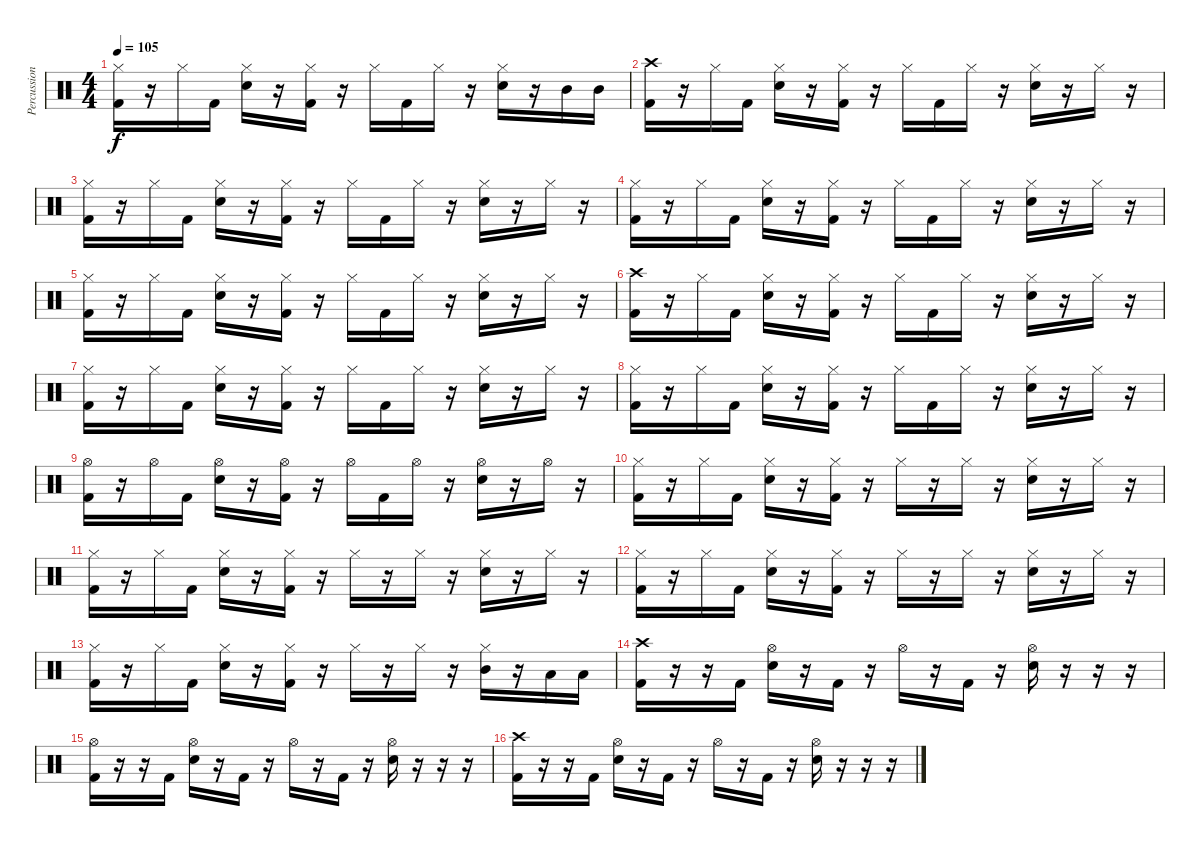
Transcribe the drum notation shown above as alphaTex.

\track ("Percussion" "Percussion") {instrument percussion}
\staff {score}
\articulation defaults
\ts (4 4)
\tempo 105
\clef neutral
\ks c
("Hi-Hat (closed)" "Kick (hit) 2").16{dy f} r.16 "Hi-Hat (closed)".16 "Kick (hit) 2".16 ("Hi-Hat (closed)" "Snare (hit) 2").16 r.16 ("Hi-Hat (closed)" "Kick (hit) 2").16 r.16 "Hi-Hat (closed)".16 "Kick (hit) 2".16 "Hi-Hat (closed)".16 r.16 ("Hi-Hat (closed)" "Snare (hit) 2").16 r.16 "Mid Tom (hit)".16 "Mid Tom (hit)".16 |
("Crash high (hit)" "Kick (hit) 2").16 r.16 "Hi-Hat (closed)".16 "Kick (hit) 2".16 ("Hi-Hat (closed)" "Snare (hit) 2").16 r.16 ("Hi-Hat (closed)" "Kick (hit) 2").16 r.16 "Hi-Hat (closed)".16 "Kick (hit) 2".16 "Hi-Hat (closed)".16 r.16 ("Hi-Hat (closed)" "Snare (hit) 2").16 r.16 "Hi-Hat (closed)".16 r.16 |
("Hi-Hat (closed)" "Kick (hit) 2").16 r.16 "Hi-Hat (closed)".16 "Kick (hit) 2".16 ("Hi-Hat (closed)" "Snare (hit) 2").16 r.16 ("Hi-Hat (closed)" "Kick (hit) 2").16 r.16 "Hi-Hat (closed)".16 "Kick (hit) 2".16 "Hi-Hat (closed)".16 r.16 ("Hi-Hat (closed)" "Snare (hit) 2").16 r.16 "Hi-Hat (closed)".16 r.16 |
("Hi-Hat (closed)" "Kick (hit) 2").16 r.16 "Hi-Hat (closed)".16 "Kick (hit) 2".16 ("Hi-Hat (closed)" "Snare (hit) 2").16 r.16 ("Hi-Hat (closed)" "Kick (hit) 2").16 r.16 "Hi-Hat (closed)".16 "Kick (hit) 2".16 "Hi-Hat (closed)".16 r.16 ("Hi-Hat (closed)" "Snare (hit) 2").16 r.16 "Hi-Hat (closed)".16 r.16 |
("Hi-Hat (closed)" "Kick (hit) 2").16 r.16 "Hi-Hat (closed)".16 "Kick (hit) 2".16 ("Hi-Hat (closed)" "Snare (hit) 2").16 r.16 ("Hi-Hat (closed)" "Kick (hit) 2").16 r.16 "Hi-Hat (closed)".16 "Kick (hit) 2".16 "Hi-Hat (closed)".16 r.16 ("Hi-Hat (closed)" "Snare (hit) 2").16 r.16 "Hi-Hat (closed)".16 r.16 |
("Crash high (hit)" "Kick (hit) 2").16 r.16 "Hi-Hat (closed)".16 "Kick (hit) 2".16 ("Hi-Hat (closed)" "Snare (hit) 2").16 r.16 ("Hi-Hat (closed)" "Kick (hit) 2").16 r.16 "Hi-Hat (closed)".16 "Kick (hit) 2".16 "Hi-Hat (closed)".16 r.16 ("Hi-Hat (closed)" "Snare (hit) 2").16 r.16 "Hi-Hat (closed)".16 r.16 |
("Hi-Hat (closed)" "Kick (hit) 2").16 r.16 "Hi-Hat (closed)".16 "Kick (hit) 2".16 ("Hi-Hat (closed)" "Snare (hit) 2").16 r.16 ("Hi-Hat (closed)" "Kick (hit) 2").16 r.16 "Hi-Hat (closed)".16 "Kick (hit) 2".16 "Hi-Hat (closed)".16 r.16 ("Hi-Hat (closed)" "Snare (hit) 2").16 r.16 "Hi-Hat (closed)".16 r.16 |
("Hi-Hat (closed)" "Kick (hit) 2").16 r.16 "Hi-Hat (closed)".16 "Kick (hit) 2".16 ("Hi-Hat (closed)" "Snare (hit) 2").16 r.16 ("Hi-Hat (closed)" "Kick (hit) 2").16 r.16 "Hi-Hat (closed)".16 "Kick (hit) 2".16 "Hi-Hat (closed)".16 r.16 ("Hi-Hat (closed)" "Snare (hit) 2").16 r.16 "Hi-Hat (closed)".16 r.16 |
("Hi-Hat (open)" "Kick (hit) 2").16 r.16 "Hi-Hat (open)".16 "Kick (hit) 2".16 ("Hi-Hat (open)" "Snare (hit) 2").16 r.16 ("Hi-Hat (open)" "Kick (hit) 2").16 r.16 "Hi-Hat (open)".16 "Kick (hit) 2".16 "Hi-Hat (open)".16 r.16 ("Hi-Hat (open)" "Snare (hit) 2").16 r.16 "Hi-Hat (open)".16 r.16 |
("Hi-Hat (closed)" "Kick (hit) 2").16 r.16 "Hi-Hat (closed)".16 "Kick (hit) 2".16 ("Hi-Hat (closed)" "Snare (hit) 2").16 r.16 ("Hi-Hat (closed)" "Kick (hit) 2").16 r.16 "Hi-Hat (closed)".16 r.16 "Hi-Hat (closed)".16 r.16 ("Hi-Hat (closed)" "Snare (hit) 2").16 r.16 "Hi-Hat (closed)".16 r.16 |
("Hi-Hat (closed)" "Kick (hit) 2").16 r.16 "Hi-Hat (closed)".16 "Kick (hit) 2".16 ("Hi-Hat (closed)" "Snare (hit) 2").16 r.16 ("Hi-Hat (closed)" "Kick (hit) 2").16 r.16 "Hi-Hat (closed)".16 r.16 "Hi-Hat (closed)".16 r.16 ("Hi-Hat (closed)" "Snare (hit) 2").16 r.16 "Hi-Hat (closed)".16 r.16 |
("Hi-Hat (closed)" "Kick (hit) 2").16 r.16 "Hi-Hat (closed)".16 "Kick (hit) 2".16 ("Hi-Hat (closed)" "Snare (hit) 2").16 r.16 ("Hi-Hat (closed)" "Kick (hit) 2").16 r.16 "Hi-Hat (closed)".16 r.16 "Hi-Hat (closed)".16 r.16 ("Hi-Hat (closed)" "Snare (hit) 2").16 r.16 "Hi-Hat (closed)".16 r.16 |
("Hi-Hat (closed)" "Kick (hit) 2").16 r.16 "Hi-Hat (closed)".16 "Kick (hit) 2".16 ("Hi-Hat (closed)" "Snare (hit) 2").16 r.16 ("Hi-Hat (closed)" "Kick (hit) 2").16 r.16 "Hi-Hat (closed)".16 r.16 "Hi-Hat (closed)".16 r.16 ("Hi-Hat (closed)" "Mid Tom (hit)").16 r.16 "Low Floor Tom (hit)".16 "Low Floor Tom (hit)".16 |
("Crash high (hit)" "Kick (hit) 2").16 r.16 r.16 "Kick (hit) 2".16 ("Hi-Hat (open)" "Snare (hit) 2").16 r.16 "Kick (hit) 2".16 r.16 "Hi-Hat (open)".16 r.16 "Kick (hit) 2".16 r.16 ("Hi-Hat (open)" "Snare (hit) 2").16 r.16 r.16 r.16 |
("Hi-Hat (open)" "Kick (hit) 2").16 r.16 r.16 "Kick (hit) 2".16 ("Hi-Hat (open)" "Snare (hit) 2").16 r.16 "Kick (hit) 2".16 r.16 "Hi-Hat (open)".16 r.16 "Kick (hit) 2".16 r.16 ("Hi-Hat (open)" "Snare (hit) 2").16 r.16 r.16 r.16 |
("Crash high (hit)" "Kick (hit) 2").16 r.16 r.16 "Kick (hit) 2".16 ("Hi-Hat (open)" "Snare (hit) 2").16 r.16 "Kick (hit) 2".16 r.16 "Hi-Hat (open)".16 r.16 "Kick (hit) 2".16 r.16 ("Hi-Hat (open)" "Snare (hit) 2").16 r.16 r.16 r.16
